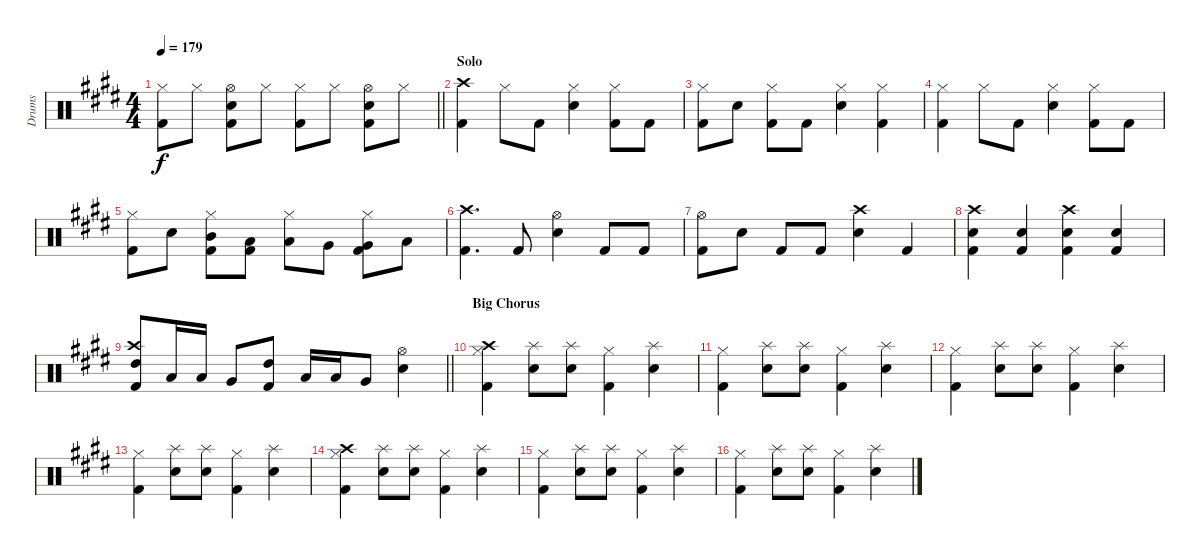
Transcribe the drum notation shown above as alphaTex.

\track ("Drums" "Drums") {instrument percussion}
\staff {score}
\articulation defaults
\ts (4 4)
\tempo 179
\clef neutral
\barLineRight lightlight
\ks e
("Hi-Hat (closed)" "Kick (hit) 2").8{dy f} "Hi-Hat (closed)".8 ("Hi-Hat (open)" "Snare (hit) 2" "Kick (hit) 2").8 "Hi-Hat (closed)".8 ("Hi-Hat (closed)" "Kick (hit) 2").8 "Hi-Hat (closed)".8 ("Hi-Hat (open)" "Snare (hit) 2" "Kick (hit) 2").8 "Hi-Hat (closed)".8 |
\section ("" "Solo")
("Crash high (hit)" "Kick (hit) 2").4 "Hi-Hat (closed)".8 "Kick (hit) 2".8 ("Hi-Hat (closed)" "Snare (hit) 2").4 ("Hi-Hat (closed)" "Kick (hit) 2").8 "Kick (hit) 2".8 |
("Hi-Hat (closed)" "Kick (hit) 2").8 "Snare (hit) 2".8 ("Hi-Hat (closed)" "Kick (hit) 2").8 "Kick (hit) 2".8 ("Hi-Hat (closed)" "Snare (hit) 2").4 ("Hi-Hat (closed)" "Kick (hit) 2").4 |
("Hi-Hat (closed)" "Kick (hit) 2").4 "Hi-Hat (closed)".8 "Kick (hit) 2".8 ("Hi-Hat (closed)" "Snare (hit) 2").4 ("Hi-Hat (closed)" "Kick (hit) 2").8 "Kick (hit) 2".8 |
("Hi-Hat (closed)" "Kick (hit) 2").8 "Snare (hit) 2".8 ("Hi-Hat (closed)" "Mid Tom (hit)" "Kick (hit) 2").8 ("Low Tom (hit)" "Kick (hit) 2").8 ("Hi-Hat (closed)" "Low Tom (hit)").8 "Very Low Tom (hit)".8 ("Hi-Hat (closed)" "Very Low Tom (hit)" "Kick (hit) 2").8 "Low Floor Tom (hit)".8 |
("Crash high (hit)" "Kick (hit) 2").4{d} "Kick (hit) 2".8 ("Hi-Hat (open)" "Snare (hit) 2").4 "Kick (hit) 2".8 "Kick (hit) 2".8 |
("Hi-Hat (open)" "Kick (hit) 2").8 "Snare (hit) 2".8 "Kick (hit) 2".8 "Kick (hit) 2".8 ("Crash high (hit)" "Snare (hit) 2").4 "Kick (hit) 2".4 |
("Crash high (hit)" "Snare (hit) 2" "Kick (hit) 2").4 ("Snare (hit) 2" "Kick (hit) 2").4 ("Crash high (hit)" "Snare (hit) 2" "Kick (hit) 2").4 ("Snare (hit) 2" "Kick (hit) 2").4 |
\barLineRight lightlight
("Crash high (hit)" "High Tom (hit)" "Kick (hit) 2").8 "Low Tom (hit)".16 "Low Tom (hit)".16 "Very Low Tom (hit)".8 ("High Tom (hit)" "Kick (hit) 2").8 "Low Tom (hit)".16 "Low Tom (hit)".16 "Very Low Tom (hit)".8 ("Hi-Hat (open)" "Snare (hit) 2").4 |
\section ("" "Big Chorus")
("Hi-Hat (closed)" "Crash high (hit)" "Kick (hit) 2").4 ("Splash (hit)" "Snare (hit) 2").8 ("Splash (hit)" "Snare (hit) 2").8 ("Hi-Hat (closed)" "Kick (hit) 2").4 ("Splash (hit)" "Snare (hit) 2").4 |
("Hi-Hat (closed)" "Kick (hit) 2").4 ("Splash (hit)" "Snare (hit) 2").8 ("Splash (hit)" "Snare (hit) 2").8 ("Hi-Hat (closed)" "Kick (hit) 2").4 ("Splash (hit)" "Snare (hit) 2").4 |
("Hi-Hat (closed)" "Kick (hit) 2").4 ("Splash (hit)" "Snare (hit) 2").8 ("Splash (hit)" "Snare (hit) 2").8 ("Hi-Hat (closed)" "Kick (hit) 2").4 ("Splash (hit)" "Snare (hit) 2").4 |
("Hi-Hat (closed)" "Kick (hit) 2").4 ("Splash (hit)" "Snare (hit) 2").8 ("Splash (hit)" "Snare (hit) 2").8 ("Hi-Hat (closed)" "Kick (hit) 2").4 ("Splash (hit)" "Snare (hit) 2").4 |
("Hi-Hat (closed)" "Crash high (hit)" "Kick (hit) 2").4 ("Splash (hit)" "Snare (hit) 2").8 ("Splash (hit)" "Snare (hit) 2").8 ("Hi-Hat (closed)" "Kick (hit) 2").4 ("Splash (hit)" "Snare (hit) 2").4 |
("Hi-Hat (closed)" "Kick (hit) 2").4 ("Splash (hit)" "Snare (hit) 2").8 ("Splash (hit)" "Snare (hit) 2").8 ("Hi-Hat (closed)" "Kick (hit) 2").4 ("Splash (hit)" "Snare (hit) 2").4 |
("Hi-Hat (closed)" "Kick (hit) 2").4 ("Splash (hit)" "Snare (hit) 2").8 ("Splash (hit)" "Snare (hit) 2").8 ("Hi-Hat (closed)" "Kick (hit) 2").4 ("Splash (hit)" "Snare (hit) 2").4
